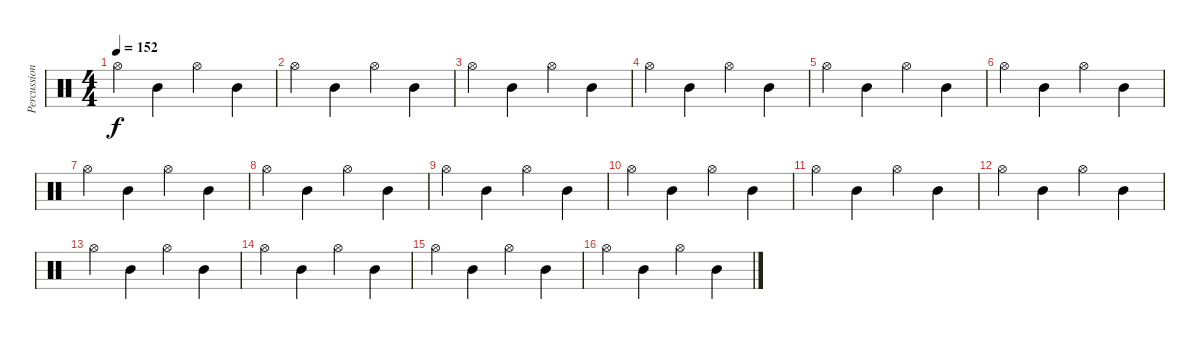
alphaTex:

\track ("Percussion" "Percussion") {instrument percussion}
\staff {score}
\articulation defaults
\ts (4 4)
\tempo 152
\clef neutral
\ks c "Hi-Hat (open)".4{dy f} "Mid Tom (hit)".4 "Hi-Hat (open)".4 "Mid Tom (hit)".4
|
"Hi-Hat (open)".4 "Mid Tom (hit)".4 "Hi-Hat (open)".4 "Mid Tom (hit)".4 |
"Hi-Hat (open)".4 "Mid Tom (hit)".4 "Hi-Hat (open)".4 "Mid Tom (hit)".4 |
"Hi-Hat (open)".4 "Mid Tom (hit)".4 "Hi-Hat (open)".4 "Mid Tom (hit)".4 |
"Hi-Hat (open)".4 "Mid Tom (hit)".4 "Hi-Hat (open)".4 "Mid Tom (hit)".4 |
"Hi-Hat (open)".4 "Mid Tom (hit)".4 "Hi-Hat (open)".4 "Mid Tom (hit)".4 |
"Hi-Hat (open)".4 "Mid Tom (hit)".4 "Hi-Hat (open)".4 "Mid Tom (hit)".4 |
"Hi-Hat (open)".4 "Mid Tom (hit)".4 "Hi-Hat (open)".4 "Mid Tom (hit)".4 |
"Hi-Hat (open)".4 "Mid Tom (hit)".4 "Hi-Hat (open)".4 "Mid Tom (hit)".4 |
"Hi-Hat (open)".4 "Mid Tom (hit)".4 "Hi-Hat (open)".4 "Mid Tom (hit)".4 |
"Hi-Hat (open)".4 "Mid Tom (hit)".4 "Hi-Hat (open)".4 "Mid Tom (hit)".4 |
"Hi-Hat (open)".4 "Mid Tom (hit)".4 "Hi-Hat (open)".4 "Mid Tom (hit)".4 |
"Hi-Hat (open)".4 "Mid Tom (hit)".4 "Hi-Hat (open)".4 "Mid Tom (hit)".4 |
"Hi-Hat (open)".4 "Mid Tom (hit)".4 "Hi-Hat (open)".4 "Mid Tom (hit)".4 |
"Hi-Hat (open)".4 "Mid Tom (hit)".4 "Hi-Hat (open)".4 "Mid Tom (hit)".4 |
"Hi-Hat (open)".4 "Mid Tom (hit)".4 "Hi-Hat (open)".4 "Mid Tom (hit)".4
